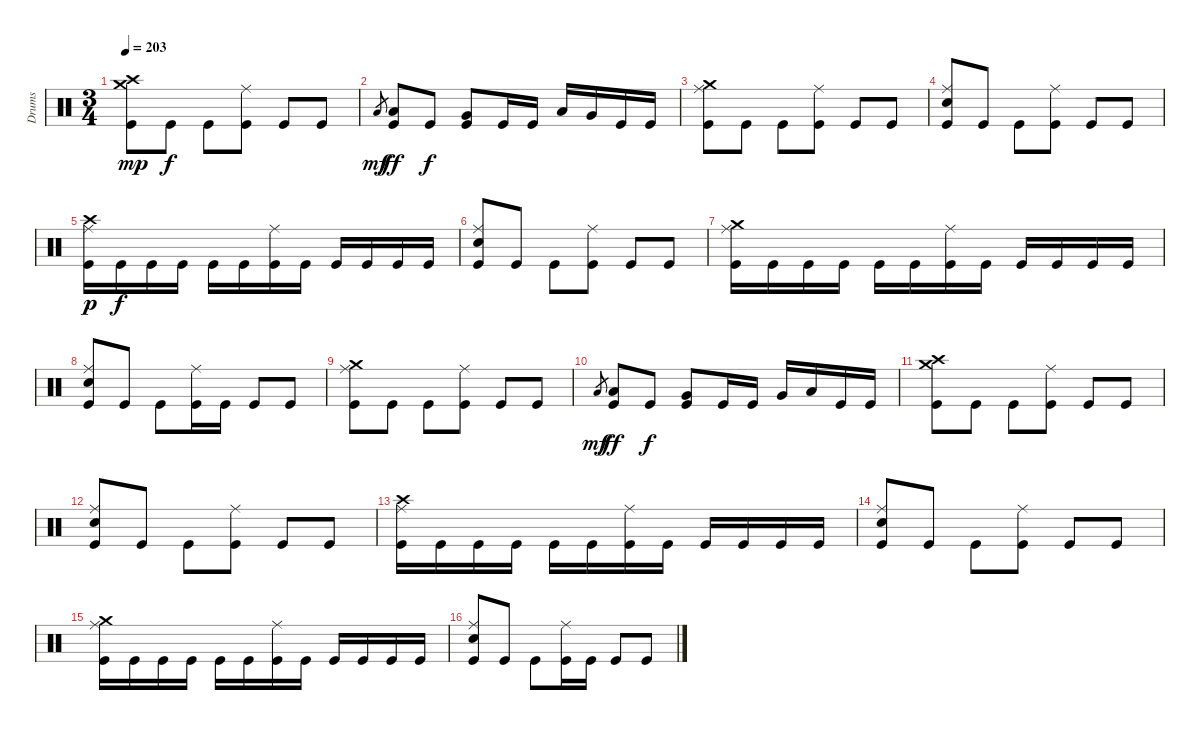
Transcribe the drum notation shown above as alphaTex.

\track ("Drums" "Drums") {instrument percussion}
\staff {score}
\articulation defaults
\ts (3 4)
\tempo 203
\clef neutral
\ks c
("Crash medium (hit)" "Crash high (hit)" "Kick (hit)").8{dy mp} "Kick (hit)".8{dy f} "Kick (hit)".8 ("Ride (middle)" "Kick (hit)").8 "Kick (hit)".8 "Kick (hit)".8 |
"Low Tom (hit)".8{gr dy mf} ("Low Tom (hit)" "Kick (hit)").8{dy ff} "Kick (hit)".8{dy f} ("Very Low Tom (hit)" "Kick (hit)").8 "Kick (hit)".16 "Kick (hit)".16 "Low Tom (hit)".16 "Very Low Tom (hit)".16 "Kick (hit)".16 "Kick (hit)".16 |
("Crash medium (hit)" "Ride (middle)" "Kick (hit)").8 "Kick (hit)".8 "Kick (hit)".8 ("Ride (middle)" "Kick (hit)").8 "Kick (hit)".8 "Kick (hit)".8 |
("Ride (middle)" "Electric Snare (hit)" "Kick (hit)").8 "Kick (hit)".8 "Kick (hit)".8 ("Ride (middle)" "Kick (hit)").8 "Kick (hit)".8 "Kick (hit)".8 |
("Crash high (hit)" "Ride (middle)" "Kick (hit)").16{dy p} "Kick (hit)".16{dy f} "Kick (hit)".16 "Kick (hit)".16 "Kick (hit)".16 "Kick (hit)".16 ("Ride (middle)" "Kick (hit)").16 "Kick (hit)".16 "Kick (hit)".16 "Kick (hit)".16 "Kick (hit)".16 "Kick (hit)".16 |
("Ride (middle)" "Electric Snare (hit)" "Kick (hit)").8 "Kick (hit)".8 "Kick (hit)".8 ("Ride (middle)" "Kick (hit)").8 "Kick (hit)".8 "Kick (hit)".8 |
("Crash medium (hit)" "Ride (middle)" "Kick (hit)").16 "Kick (hit)".16 "Kick (hit)".16 "Kick (hit)".16 "Kick (hit)".16 "Kick (hit)".16 ("Ride (middle)" "Kick (hit)").16 "Kick (hit)".16 "Kick (hit)".16 "Kick (hit)".16 "Kick (hit)".16 "Kick (hit)".16 |
("Ride (middle)" "Electric Snare (hit)" "Kick (hit)").8 "Kick (hit)".8 "Kick (hit)".8 ("Ride (middle)" "Kick (hit)").16 "Kick (hit)".16 "Kick (hit)".8 "Kick (hit)".8 |
("Crash medium (hit)" "Ride (middle)" "Kick (hit)").8 "Kick (hit)".8 "Kick (hit)".8 ("Ride (middle)" "Kick (hit)").8 "Kick (hit)".8 "Kick (hit)".8 |
"Low Tom (hit)".8{gr dy mf} ("Low Tom (hit)" "Kick (hit)").8{dy ff} "Kick (hit)".8{dy f} ("Very Low Tom (hit)" "Kick (hit)").8 "Kick (hit)".16 "Kick (hit)".16 "Very Low Tom (hit)".16 "Low Floor Tom (hit)".16 "Kick (hit)".16 "Kick (hit)".16 |
("Crash medium (hit)" "Crash high (hit)" "Kick (hit)").8 "Kick (hit)".8 "Kick (hit)".8 ("Ride (middle)" "Kick (hit)").8 "Kick (hit)".8 "Kick (hit)".8 |
("Ride (middle)" "Electric Snare (hit)" "Kick (hit)").8 "Kick (hit)".8 "Kick (hit)".8 ("Ride (middle)" "Kick (hit)").8 "Kick (hit)".8 "Kick (hit)".8 |
("Crash high (hit)" "Ride (middle)" "Kick (hit)").16 "Kick (hit)".16 "Kick (hit)".16 "Kick (hit)".16 "Kick (hit)".16 "Kick (hit)".16 ("Ride (middle)" "Kick (hit)").16 "Kick (hit)".16 "Kick (hit)".16 "Kick (hit)".16 "Kick (hit)".16 "Kick (hit)".16 |
("Ride (middle)" "Electric Snare (hit)" "Kick (hit)").8 "Kick (hit)".8 "Kick (hit)".8 ("Ride (middle)" "Kick (hit)").8 "Kick (hit)".8 "Kick (hit)".8 |
("Crash medium (hit)" "Ride (middle)" "Kick (hit)").16 "Kick (hit)".16 "Kick (hit)".16 "Kick (hit)".16 "Kick (hit)".16 "Kick (hit)".16 ("Ride (middle)" "Kick (hit)").16 "Kick (hit)".16 "Kick (hit)".16 "Kick (hit)".16 "Kick (hit)".16 "Kick (hit)".16 |
("Ride (middle)" "Electric Snare (hit)" "Kick (hit)").8 "Kick (hit)".8 "Kick (hit)".8 ("Ride (middle)" "Kick (hit)").16 "Kick (hit)".16 "Kick (hit)".8 "Kick (hit)".8
